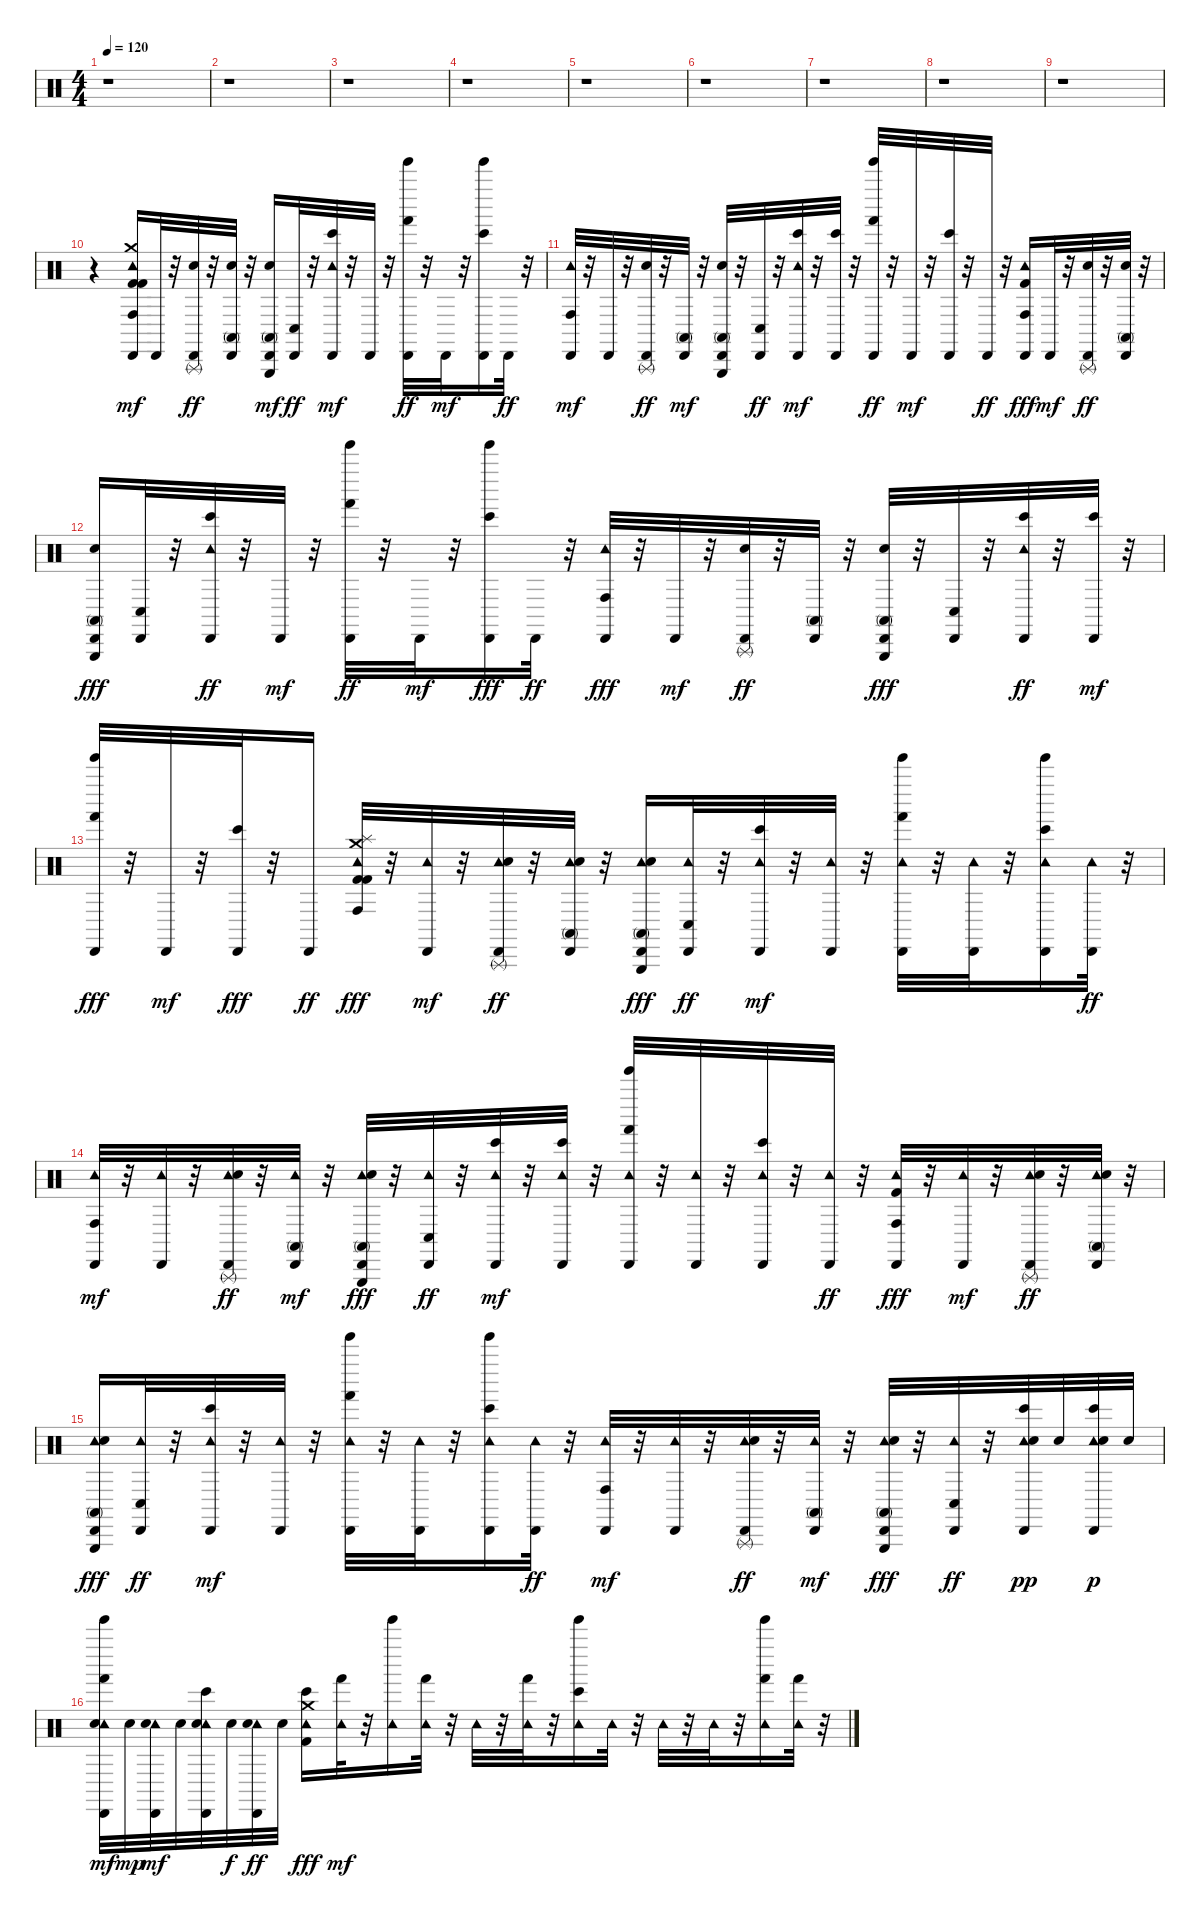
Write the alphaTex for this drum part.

\track "" {instrument percussion}
\staff {score}
\articulation defaults
\ts (4 4)
\tempo 120
\clef neutral
\ks c
r.1{dy f} |
r.1 |
r.1 |
r.1 |
r.1 |
r.1 |
r.1 |
r.1 |
r.1 |
r.4 ("Tambourine (hit)" "Conga high (hit)" "Kick (hit) 2" "Crash medium (hit)" "Kick (hit) 2" "Cabasa (hit)").16{dy mf} "Cabasa (hit)".32 r.32 ("Triangle (rnute)" "Snare (hit) 2" "Cabasa (hit)").32{dy ff} r.32 ("Conga high (mute)" "Cabasa (hit)" "Snare (hit) 2").32 r.32 ("Triangle (hit)" "Snare (hit) 2" "Conga high (mute)" "Cabasa (hit)").16{dy mf} ("Conga low (hit)" "Cabasa (hit)").32{dy ff} r.32 ("Tambourine (hit)" "Bongo High (hit)" "Cabasa (hit)").32{dy mf} r.32 "Cabasa (hit)".32 r.32 ("Tinkle Bell (hit)" "Hand (hit)" "Cabasa (hit)").32{dy ff} r.32 "Cabasa (hit)".32{dy mf} r.32 ("Tinkle Bell (hit)" "Bongo High (hit)" "Cabasa (hit)").16 "Cabasa (hit)".32{dy ff} r.32 |
("Tambourine (hit)" "Conga high (hit)" "Cabasa (hit)").32{dy mf} r.32 "Cabasa (hit)".32 r.32 ("Triangle (rnute)" "Snare (hit) 2" "Cabasa (hit)").32{dy ff} r.32 ("Conga high (mute)" "Cabasa (hit)").32{dy mf} r.32 ("Triangle (hit)" "Snare (hit) 2" "Conga high (mute)" "Cabasa (hit)").32 r.32 ("Conga low (hit)" "Cabasa (hit)").32{dy ff} r.32 ("Tambourine (hit)" "Bongo High (hit)" "Cabasa (hit)").32{dy mf} r.32 ("Bongo High (hit)" "Cabasa (hit)").32 r.32 ("Tinkle Bell (hit)" "Hand (hit)" "Cabasa (hit)").32{dy ff} r.32 "Cabasa (hit)".32{dy mf} r.32 ("Bongo High (hit)" "Cabasa (hit)").32 r.32 "Cabasa (hit)".32{dy ff} r.32 ("Kick (hit) 2" "Tambourine (hit)" "Cabasa (hit)" "Conga high (hit)").16{dy fff} "Cabasa (hit)".32{dy mf} r.32 ("Triangle (rnute)" "Snare (hit) 2" "Cabasa (hit)").32{dy ff} r.32 ("Cabasa (hit)" "Conga high (mute)" "Snare (hit) 2").32 r.32 |
("Triangle (hit)" "Snare (hit) 2" "Cabasa (hit)" "Conga high (mute)").16{dy fff} ("Cabasa (hit)" "Conga low (hit)").32 r.32 ("Tambourine (hit)" "Cabasa (hit)" "Bongo High (hit)").32{dy ff} r.32 "Cabasa (hit)".32{dy mf} r.32 ("Tinkle Bell (hit)" "Cabasa (hit)" "Hand (hit)").32{dy ff} r.32 "Cabasa (hit)".32{dy mf} r.32 ("Tinkle Bell (hit)" "Cabasa (hit)" "Bongo High (hit)").16{dy fff} "Cabasa (hit)".32{dy ff} r.32 ("Tambourine (hit)" "Cabasa (hit)" "Conga high (hit)").32{dy fff} r.32 "Cabasa (hit)".32{dy mf} r.32 ("Triangle (rnute)" "Snare (hit) 2" "Cabasa (hit)").32{dy ff} r.32 ("Cabasa (hit)" "Conga high (mute)").32 r.32 ("Triangle (hit)" "Snare (hit) 2" "Cabasa (hit)" "Conga high (mute)").32{dy fff} r.32 ("Cabasa (hit)" "Conga low (hit)").32 r.32 ("Tambourine (hit)" "Cabasa (hit)" "Bongo High (hit)").32{dy ff} r.32 ("Cabasa (hit)" "Bongo High (hit)").32{dy mf} r.32 |
("Tinkle Bell (hit)" "Cabasa (hit)" "Hand (hit)").32{dy fff} r.32 "Cabasa (hit)".32{dy mf} r.32 ("Cabasa (hit)" "Bongo High (hit)").32{dy fff} r.32 "Cabasa (hit)".16{dy ff} ("Kick (hit) 2" "Crash medium (hit)" "Tambourine (hit)" "Conga high (hit)" "Kick (hit) 2" "Splash (hit)").32{dy fff} r.32 ("Tambourine (hit)" "Cabasa (hit)").32{dy mf} r.32 ("Tambourine (hit)" "Cabasa (hit)" "Triangle (rnute)" "Snare (hit) 2").32{dy ff} r.32 ("Tambourine (hit)" "Conga high (mute)" "Cabasa (hit)" "Snare (hit) 2").32 r.32 ("Tambourine (hit)" "Conga high (mute)" "Cabasa (hit)" "Triangle (hit)" "Snare (hit) 2").16{dy fff} ("Tambourine (hit)" "Conga low (hit)" "Cabasa (hit)").32{dy ff} r.32 ("Tambourine (hit)" "Bongo High (hit)" "Cabasa (hit)").32{dy mf} r.32 ("Tambourine (hit)" "Cabasa (hit)").32 r.32 ("Tambourine (hit)" "Hand (hit)" "Cabasa (hit)" "Tinkle Bell (hit)").32 r.32 ("Tambourine (hit)" "Cabasa (hit)").32 r.32 ("Tambourine (hit)" "Bongo High (hit)" "Cabasa (hit)" "Tinkle Bell (hit)").16 ("Tambourine (hit)" "Cabasa (hit)").32{dy ff} r.32 |
("Tambourine (hit)" "Conga high (hit)" "Cabasa (hit)").32{dy mf} r.32 ("Tambourine (hit)" "Cabasa (hit)").32 r.32 ("Tambourine (hit)" "Cabasa (hit)" "Triangle (rnute)" "Snare (hit) 2").32{dy ff} r.32 ("Tambourine (hit)" "Conga high (mute)" "Cabasa (hit)").32{dy mf} r.32 ("Tambourine (hit)" "Conga high (mute)" "Cabasa (hit)" "Snare (hit) 2" "Triangle (hit)").32{dy fff} r.32 ("Tambourine (hit)" "Conga low (hit)" "Cabasa (hit)").32{dy ff} r.32 ("Tambourine (hit)" "Bongo High (hit)" "Cabasa (hit)").32{dy mf} r.32 ("Tambourine (hit)" "Bongo High (hit)" "Cabasa (hit)").32 r.32 ("Tambourine (hit)" "Hand (hit)" "Cabasa (hit)" "Tinkle Bell (hit)").32 r.32 ("Tambourine (hit)" "Cabasa (hit)").32 r.32 ("Tambourine (hit)" "Bongo High (hit)" "Cabasa (hit)").32 r.32 ("Tambourine (hit)" "Cabasa (hit)").32{dy ff} r.32 ("Tambourine (hit)" "Conga high (hit)" "Cabasa (hit)" "Kick (hit) 2").32{dy fff} r.32 ("Tambourine (hit)" "Cabasa (hit)").32{dy mf} r.32 ("Tambourine (hit)" "Cabasa (hit)" "Triangle (rnute)" "Snare (hit) 2").32{dy ff} r.32 ("Tambourine (hit)" "Conga high (mute)" "Cabasa (hit)" "Snare (hit) 2").32 r.32 |
("Tambourine (hit)" "Conga high (mute)" "Cabasa (hit)" "Triangle (hit)" "Snare (hit) 2").16{dy fff} ("Tambourine (hit)" "Conga low (hit)" "Cabasa (hit)").32{dy ff} r.32 ("Tambourine (hit)" "Bongo High (hit)" "Cabasa (hit)").32{dy mf} r.32 ("Tambourine (hit)" "Cabasa (hit)").32 r.32 ("Tambourine (hit)" "Hand (hit)" "Cabasa (hit)" "Tinkle Bell (hit)").32 r.32 ("Tambourine (hit)" "Cabasa (hit)").32 r.32 ("Tambourine (hit)" "Bongo High (hit)" "Cabasa (hit)" "Tinkle Bell (hit)").16 ("Tambourine (hit)" "Cabasa (hit)").32{dy ff} r.32 ("Tambourine (hit)" "Conga high (hit)" "Cabasa (hit)").32{dy mf} r.32 ("Tambourine (hit)" "Cabasa (hit)").32 r.32 ("Tambourine (hit)" "Cabasa (hit)" "Triangle (rnute)" "Snare (hit) 2").32{dy ff} r.32 ("Tambourine (hit)" "Conga high (mute)" "Cabasa (hit)").32{dy mf} r.32 ("Tambourine (hit)" "Conga high (mute)" "Cabasa (hit)" "Snare (hit) 2" "Triangle (hit)").32{dy fff} r.32 ("Tambourine (hit)" "Conga low (hit)" "Cabasa (hit)").32{dy ff} r.32 ("Tambourine (hit)" "Bongo High (hit)" "Cabasa (hit)" "Snare (hit) 2").32{dy pp} "Snare (hit) 2".32 ("Tambourine (hit)" "Bongo High (hit)" "Cabasa (hit)" "Snare (hit) 2").32{dy p} "Snare (hit) 2".32 |
("Tambourine (hit)" "Hand (hit)" "Cabasa (hit)" "Snare (hit) 2" "Tinkle Bell (hit)").32{dy mf} "Snare (hit) 2".32{dy mp} ("Tambourine (hit)" "Cabasa (hit)" "Snare (hit) 2").32{dy mf} "Snare (hit) 2".32 ("Tambourine (hit)" "Bongo High (hit)" "Cabasa (hit)" "Snare (hit) 2").32 "Snare (hit) 2".32{dy f} ("Tambourine (hit)" "Cabasa (hit)" "Snare (hit) 2").32{dy ff} "Snare (hit) 2".32 ("Crash medium (hit)" "Kick (hit) 2" "Bongo High (hit)" "Tambourine (hit)").16{dy fff} ("Hand (hit)" "Tambourine (hit)").32{dy mf} r.32 ("Tambourine (hit)" "Tinkle Bell (hit)").16 ("Hand (hit)" "Tambourine (hit)").32 r.32 "Tambourine (hit)".32 r.32 ("Hand (hit)" "Tambourine (hit)").32 r.32 ("Bongo High (hit)" "Tambourine (hit)" "Tinkle Bell (hit)").16 "Tambourine (hit)".32 r.32 "Tambourine (hit)".32 r.32 "Tambourine (hit)".32 r.32 ("Hand (hit)" "Tambourine (hit)" "Tinkle Bell (hit)").16 ("Hand (hit)" "Tambourine (hit)").32 r.32
